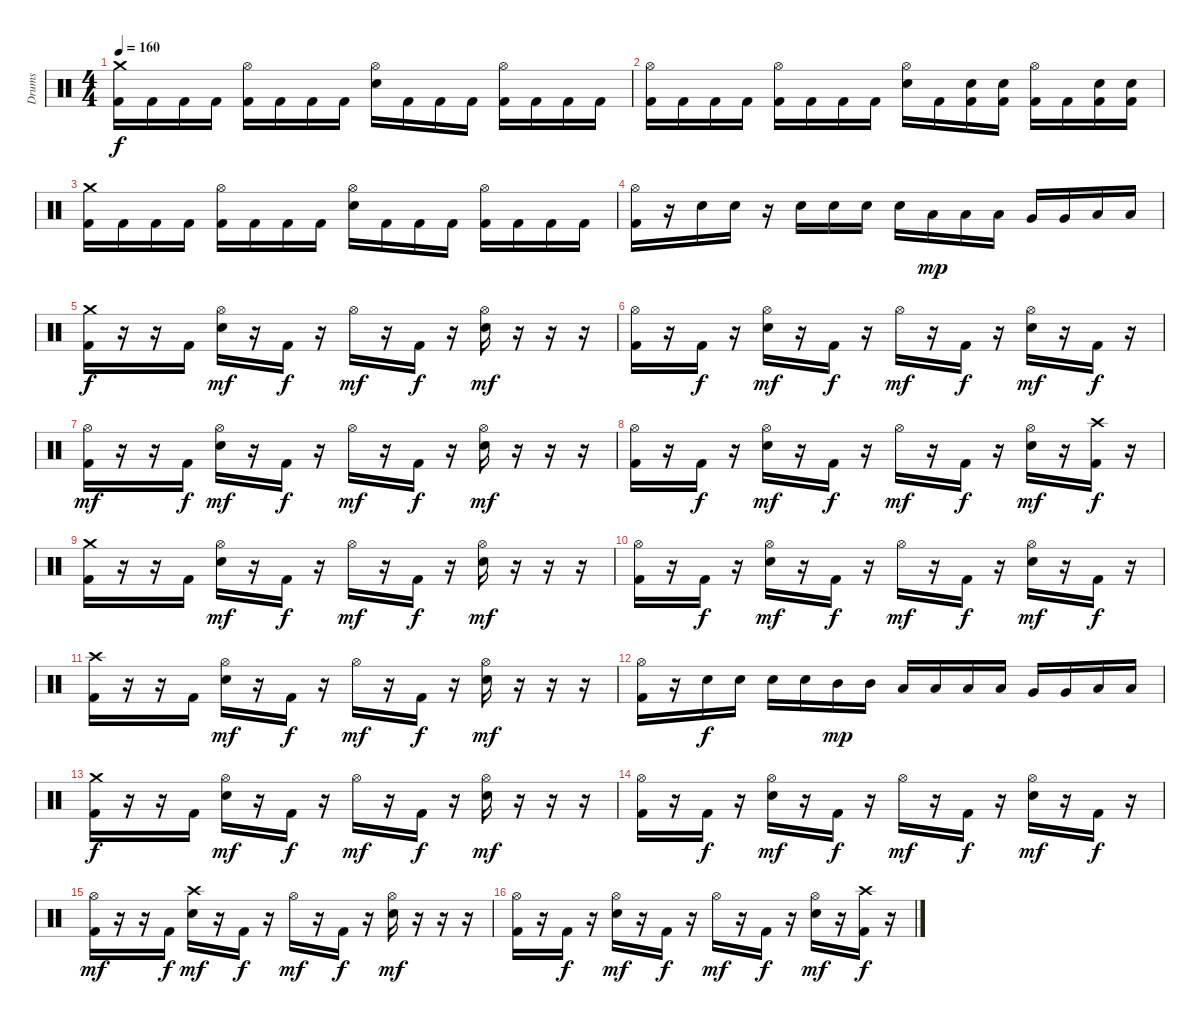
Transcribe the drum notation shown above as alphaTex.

\track ("Drums" "Drums") {instrument percussion}
\staff {score}
\articulation defaults
\ts (4 4)
\tempo 160
\clef neutral
\ks c
("Crash medium (hit)" "Kick (hit) 2").16{dy f} "Kick (hit) 2".16 "Kick (hit) 2".16 "Kick (hit) 2".16 ("Hi-Hat (open)" "Kick (hit) 2").16 "Kick (hit) 2".16 "Kick (hit) 2".16 "Kick (hit) 2".16 ("Hi-Hat (open)" "Snare (hit) 2").16 "Kick (hit) 2".16 "Kick (hit) 2".16 "Kick (hit) 2".16 ("Hi-Hat (open)" "Kick (hit) 2").16 "Kick (hit) 2".16 "Kick (hit) 2".16 "Kick (hit) 2".16 |
("Hi-Hat (open)" "Kick (hit) 2").16 "Kick (hit) 2".16 "Kick (hit) 2".16 "Kick (hit) 2".16 ("Hi-Hat (open)" "Kick (hit) 2").16 "Kick (hit) 2".16 "Kick (hit) 2".16 "Kick (hit) 2".16 ("Hi-Hat (open)" "Snare (hit) 2").16 "Kick (hit) 2".16 ("Snare (hit) 2" "Kick (hit) 2").16 ("Snare (hit) 2" "Kick (hit) 2").16 ("Hi-Hat (open)" "Kick (hit) 2").16 "Kick (hit) 2".16 ("Snare (hit) 2" "Kick (hit) 2").16 ("Snare (hit) 2" "Kick (hit) 2").16 |
("Crash medium (hit)" "Kick (hit) 2").16 "Kick (hit) 2".16 "Kick (hit) 2".16 "Kick (hit) 2".16 ("Hi-Hat (open)" "Kick (hit) 2").16 "Kick (hit) 2".16 "Kick (hit) 2".16 "Kick (hit) 2".16 ("Hi-Hat (open)" "Snare (hit) 2").16 "Kick (hit) 2".16 "Kick (hit) 2".16 "Kick (hit) 2".16 ("Hi-Hat (open)" "Kick (hit) 2").16 "Kick (hit) 2".16 "Kick (hit) 2".16 "Kick (hit) 2".16 |
("Hi-Hat (open)" "Kick (hit) 2").16 r.16 "Snare (hit) 2".16 "Snare (hit) 2".16 r.16 "Snare (hit) 2".16 "Snare (hit) 2".16 "Snare (hit) 2".16 "Snare (hit) 2".16 "Low Tom (hit)".16{dy mp} "Low Tom (hit)".16 "Low Tom (hit)".16 "Very Low Tom (hit)".16 "Very Low Tom (hit)".16 "Low Floor Tom (hit)".16 "Low Floor Tom (hit)".16 |
("Crash medium (hit)" "Kick (hit) 2").16{dy f} r.16 r.16 "Kick (hit) 2".16 ("Hi-Hat (open)" "Electric Snare (hit)").16{dy mf} r.16 "Kick (hit) 2".16{dy f} r.16 "Hi-Hat (open)".16{dy mf} r.16 "Kick (hit) 2".16{dy f} r.16 ("Hi-Hat (open)" "Electric Snare (hit)").16{dy mf} r.16 r.16 r.16 |
("Hi-Hat (open)" "Kick (hit) 2").16 r.16 "Kick (hit) 2".16{dy f} r.16 ("Hi-Hat (open)" "Electric Snare (hit)").16{dy mf} r.16 "Kick (hit) 2".16{dy f} r.16 "Hi-Hat (open)".16{dy mf} r.16 "Kick (hit) 2".16{dy f} r.16 ("Hi-Hat (open)" "Electric Snare (hit)").16{dy mf} r.16 "Kick (hit) 2".16{dy f} r.16 |
("Hi-Hat (open)" "Kick (hit) 2").16{dy mf} r.16 r.16 "Kick (hit) 2".16{dy f} ("Hi-Hat (open)" "Electric Snare (hit)").16{dy mf} r.16 "Kick (hit) 2".16{dy f} r.16 "Hi-Hat (open)".16{dy mf} r.16 "Kick (hit) 2".16{dy f} r.16 ("Hi-Hat (open)" "Electric Snare (hit)").16{dy mf} r.16 r.16 r.16 |
("Hi-Hat (open)" "Kick (hit) 2").16 r.16 "Kick (hit) 2".16{dy f} r.16 ("Hi-Hat (open)" "Electric Snare (hit)").16{dy mf} r.16 "Kick (hit) 2".16{dy f} r.16 "Hi-Hat (open)".16{dy mf} r.16 "Kick (hit) 2".16{dy f} r.16 ("Hi-Hat (open)" "Electric Snare (hit)").16{dy mf} r.16 ("Crash high (hit)" "Kick (hit) 2").16{dy f} r.16 |
("Crash medium (hit)" "Kick (hit) 2").16 r.16 r.16 "Kick (hit) 2".16 ("Hi-Hat (open)" "Electric Snare (hit)").16{dy mf} r.16 "Kick (hit) 2".16{dy f} r.16 "Hi-Hat (open)".16{dy mf} r.16 "Kick (hit) 2".16{dy f} r.16 ("Hi-Hat (open)" "Electric Snare (hit)").16{dy mf} r.16 r.16 r.16 |
("Hi-Hat (open)" "Kick (hit) 2").16 r.16 "Kick (hit) 2".16{dy f} r.16 ("Hi-Hat (open)" "Electric Snare (hit)").16{dy mf} r.16 "Kick (hit) 2".16{dy f} r.16 "Hi-Hat (open)".16{dy mf} r.16 "Kick (hit) 2".16{dy f} r.16 ("Hi-Hat (open)" "Electric Snare (hit)").16{dy mf} r.16 "Kick (hit) 2".16{dy f} r.16 |
("Crash high (hit)" "Kick (hit) 2").16 r.16 r.16 "Kick (hit) 2".16 ("Hi-Hat (open)" "Electric Snare (hit)").16{dy mf} r.16 "Kick (hit) 2".16{dy f} r.16 "Hi-Hat (open)".16{dy mf} r.16 "Kick (hit) 2".16{dy f} r.16 ("Hi-Hat (open)" "Electric Snare (hit)").16{dy mf} r.16 r.16 r.16 |
("Hi-Hat (open)" "Kick (hit) 2").16 r.16 "Snare (hit) 2".16{dy f} "Snare (hit) 2".16 "Snare (hit) 2".16 "Snare (hit) 2".16 "Mid Tom (hit)".16{dy mp} "Mid Tom (hit)".16 "Low Tom (hit)".16 "Low Tom (hit)".16 "Low Tom (hit)".16 "Low Tom (hit)".16 "Very Low Tom (hit)".16 "Very Low Tom (hit)".16 "Low Floor Tom (hit)".16 "Low Floor Tom (hit)".16 |
("Crash medium (hit)" "Kick (hit) 2").16{dy f} r.16 r.16 "Kick (hit) 2".16 ("Hi-Hat (open)" "Electric Snare (hit)").16{dy mf} r.16 "Kick (hit) 2".16{dy f} r.16 "Hi-Hat (open)".16{dy mf} r.16 "Kick (hit) 2".16{dy f} r.16 ("Hi-Hat (open)" "Electric Snare (hit)").16{dy mf} r.16 r.16 r.16 |
("Hi-Hat (open)" "Kick (hit) 2").16 r.16 "Kick (hit) 2".16{dy f} r.16 ("Hi-Hat (open)" "Electric Snare (hit)").16{dy mf} r.16 "Kick (hit) 2".16{dy f} r.16 "Hi-Hat (open)".16{dy mf} r.16 "Kick (hit) 2".16{dy f} r.16 ("Hi-Hat (open)" "Electric Snare (hit)").16{dy mf} r.16 "Kick (hit) 2".16{dy f} r.16 |
("Hi-Hat (open)" "Kick (hit) 2").16{dy mf} r.16 r.16 "Kick (hit) 2".16{dy f} ("Crash high (hit)" "Electric Snare (hit)").16{dy mf} r.16 "Kick (hit) 2".16{dy f} r.16 "Hi-Hat (open)".16{dy mf} r.16 "Kick (hit) 2".16{dy f} r.16 ("Hi-Hat (open)" "Electric Snare (hit)").16{dy mf} r.16 r.16 r.16 |
("Hi-Hat (open)" "Kick (hit) 2").16 r.16 "Kick (hit) 2".16{dy f} r.16 ("Hi-Hat (open)" "Electric Snare (hit)").16{dy mf} r.16 "Kick (hit) 2".16{dy f} r.16 "Hi-Hat (open)".16{dy mf} r.16 "Kick (hit) 2".16{dy f} r.16 ("Hi-Hat (open)" "Electric Snare (hit)").16{dy mf} r.16 ("Crash high (hit)" "Kick (hit) 2").16{dy f} r.16
